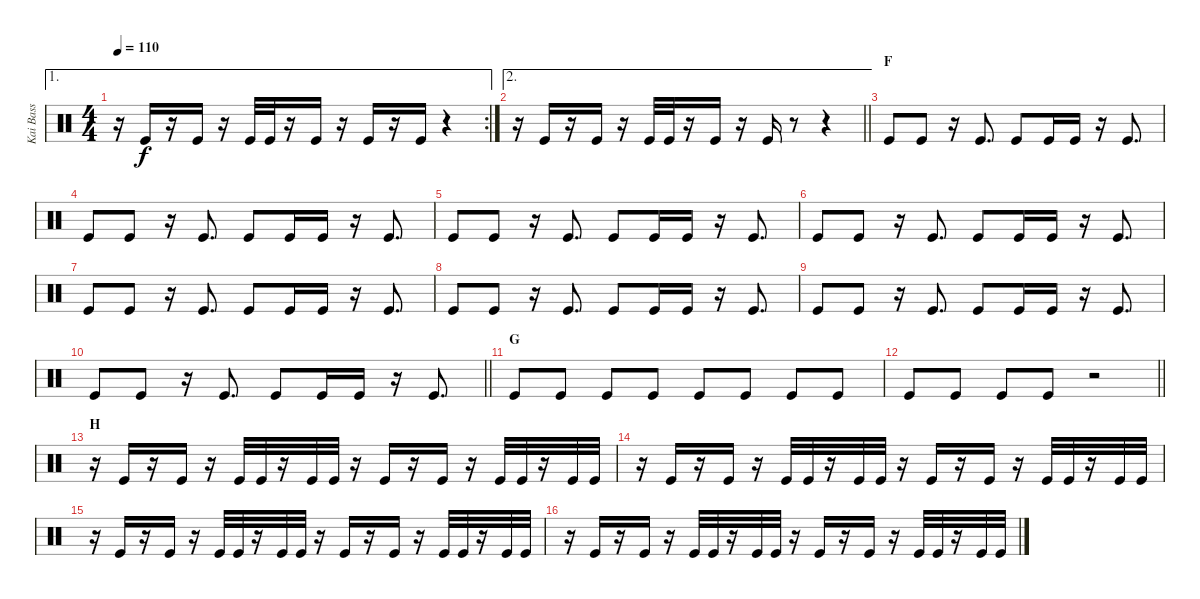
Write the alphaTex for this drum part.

\track ("Kai Bass" "Kai Bass") {instrument percussion}
\staff {score}
\articulation defaults
\ae 1
\rc 2
\ts (4 4)
\tempo 110
\clef neutral
\ks c
r.16{dy f} "Kick (hit)".16 r.16 "Kick (hit)".16 r.16 "Kick (hit)".32 "Kick (hit)".32 r.16 "Kick (hit)".16 r.16 "Kick (hit)".16 r.16 "Kick (hit)".16 r.4 |
\ae 2
\barLineRight lightlight
r.16 "Kick (hit)".16 r.16 "Kick (hit)".16 r.16 "Kick (hit)".32 "Kick (hit)".32 r.16 "Kick (hit)".16 r.16 "Kick (hit)".16 r.8 r.4 |
\section ("" "F")
"Kick (hit)".8 "Kick (hit)".8 r.16 "Kick (hit)".8{d} "Kick (hit)".8 "Kick (hit)".16 "Kick (hit)".16 r.16 "Kick (hit)".8{d} |
"Kick (hit)".8 "Kick (hit)".8 r.16 "Kick (hit)".8{d} "Kick (hit)".8 "Kick (hit)".16 "Kick (hit)".16 r.16 "Kick (hit)".8{d} |
"Kick (hit)".8 "Kick (hit)".8 r.16 "Kick (hit)".8{d} "Kick (hit)".8 "Kick (hit)".16 "Kick (hit)".16 r.16 "Kick (hit)".8{d} |
"Kick (hit)".8 "Kick (hit)".8 r.16 "Kick (hit)".8{d} "Kick (hit)".8 "Kick (hit)".16 "Kick (hit)".16 r.16 "Kick (hit)".8{d} |
"Kick (hit)".8 "Kick (hit)".8 r.16 "Kick (hit)".8{d} "Kick (hit)".8 "Kick (hit)".16 "Kick (hit)".16 r.16 "Kick (hit)".8{d} |
"Kick (hit)".8 "Kick (hit)".8 r.16 "Kick (hit)".8{d} "Kick (hit)".8 "Kick (hit)".16 "Kick (hit)".16 r.16 "Kick (hit)".8{d} |
"Kick (hit)".8 "Kick (hit)".8 r.16 "Kick (hit)".8{d} "Kick (hit)".8 "Kick (hit)".16 "Kick (hit)".16 r.16 "Kick (hit)".8{d} |
\barLineRight lightlight "Kick (hit)".8 "Kick (hit)".8
r.16 "Kick (hit)".8{d} "Kick (hit)".8 "Kick (hit)".16 "Kick (hit)".16 r.16 "Kick (hit)".8{d} |
\section ("" "G")
"Kick (hit)".8 "Kick (hit)".8 "Kick (hit)".8 "Kick (hit)".8 "Kick (hit)".8 "Kick (hit)".8 "Kick (hit)".8 "Kick (hit)".8 |
\barLineRight lightlight "Kick (hit)".8 "Kick (hit)".8 "Kick (hit)".8 "Kick (hit)".8
r.2 |
\section ("" "H")
r.16 "Kick (hit)".16 r.16 "Kick (hit)".16 r.16 "Kick (hit)".32 "Kick (hit)".32 r.16 "Kick (hit)".32 "Kick (hit)".32 r.16 "Kick (hit)".16 r.16 "Kick (hit)".16 r.16 "Kick (hit)".32 "Kick (hit)".32 r.16 "Kick (hit)".32 "Kick (hit)".32 |
r.16 "Kick (hit)".16 r.16 "Kick (hit)".16 r.16 "Kick (hit)".32 "Kick (hit)".32 r.16 "Kick (hit)".32 "Kick (hit)".32 r.16 "Kick (hit)".16 r.16 "Kick (hit)".16 r.16 "Kick (hit)".32 "Kick (hit)".32 r.16 "Kick (hit)".32 "Kick (hit)".32 |
r.16 "Kick (hit)".16 r.16 "Kick (hit)".16 r.16 "Kick (hit)".32 "Kick (hit)".32 r.16 "Kick (hit)".32 "Kick (hit)".32 r.16 "Kick (hit)".16 r.16 "Kick (hit)".16 r.16 "Kick (hit)".32 "Kick (hit)".32 r.16 "Kick (hit)".32 "Kick (hit)".32 |
r.16 "Kick (hit)".16 r.16 "Kick (hit)".16 r.16 "Kick (hit)".32 "Kick (hit)".32 r.16 "Kick (hit)".32 "Kick (hit)".32 r.16 "Kick (hit)".16 r.16 "Kick (hit)".16 r.16 "Kick (hit)".32 "Kick (hit)".32 r.16 "Kick (hit)".32 "Kick (hit)".32
